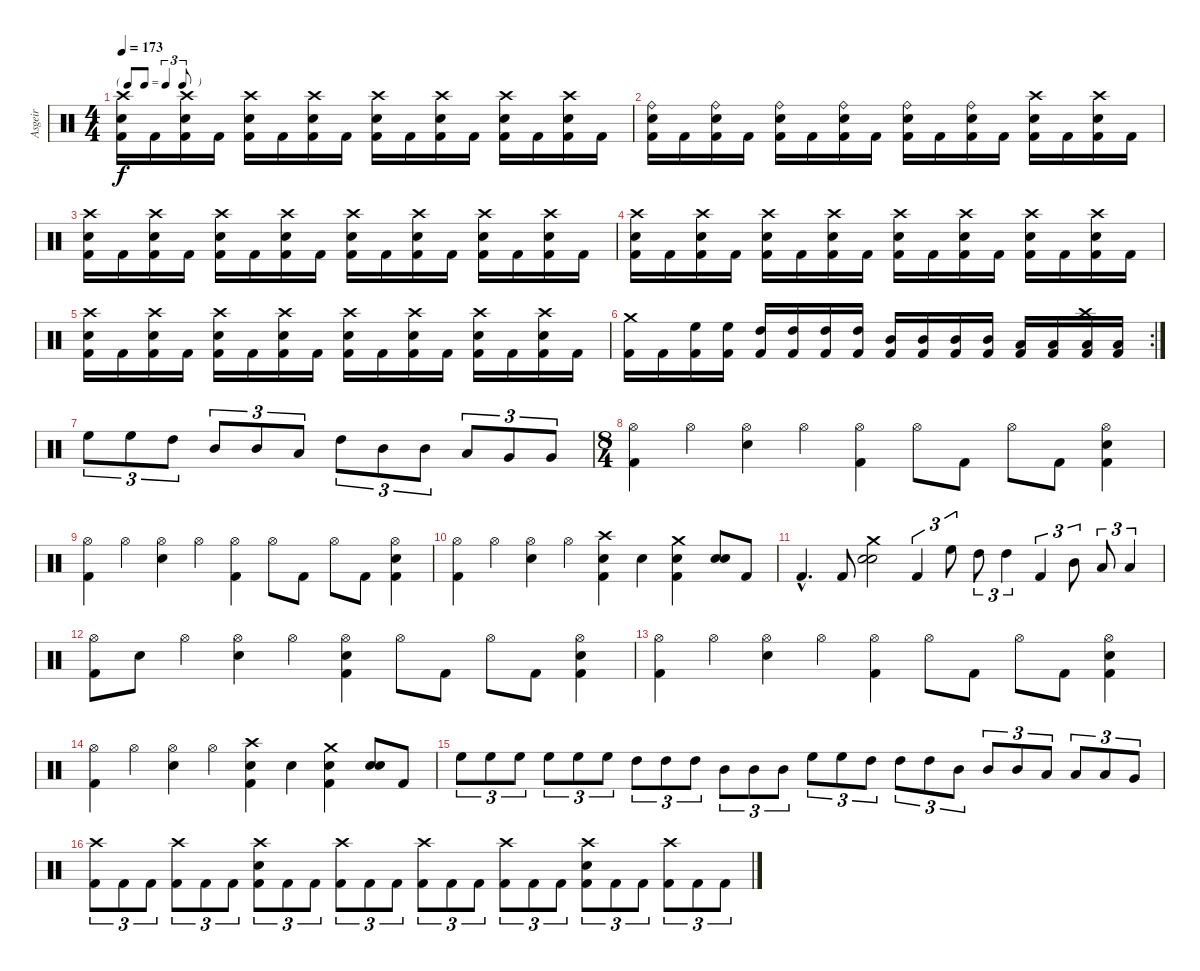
\track ("Asgeir" "Asgeir") {instrument percussion}
\staff {score}
\articulation defaults
\ts (4 4)
\tf triplet8th
\tempo 173
\clef neutral
\ks c
("Kick (hit) 2" "Snare (hit) 2" "Crash high (hit)").16{dy f} "Kick (hit) 2".16 ("Kick (hit) 2" "Snare (hit) 2" "Crash high (hit)").16 "Kick (hit) 2".16 ("Kick (hit) 2" "Snare (hit) 2" "Crash high (hit)").16 "Kick (hit) 2".16 ("Kick (hit) 2" "Snare (hit) 2" "Crash high (hit)").16 "Kick (hit) 2".16 ("Kick (hit) 2" "Snare (hit) 2" "Crash high (hit)").16 "Kick (hit) 2".16 ("Kick (hit) 2" "Snare (hit) 2" "Crash high (hit)").16 "Kick (hit) 2".16 ("Kick (hit) 2" "Snare (hit) 2" "Crash high (hit)").16 "Kick (hit) 2".16 ("Kick (hit) 2" "Snare (hit) 2" "Crash high (hit)").16 "Kick (hit) 2".16 |
("Kick (hit) 2" "Snare (hit) 2" "Ride (bell)").16 "Kick (hit) 2".16 ("Kick (hit) 2" "Snare (hit) 2" "Ride (bell)").16 "Kick (hit) 2".16 ("Kick (hit) 2" "Snare (hit) 2" "Ride (bell)").16 "Kick (hit) 2".16 ("Kick (hit) 2" "Snare (hit) 2" "Ride (bell)").16 "Kick (hit) 2".16 ("Kick (hit) 2" "Snare (hit) 2" "Ride (bell)").16 "Kick (hit) 2".16 ("Kick (hit) 2" "Snare (hit) 2" "Ride (bell)").16 "Kick (hit) 2".16 ("Kick (hit) 2" "Snare (hit) 2" "Crash high (hit)").16 "Kick (hit) 2".16 ("Kick (hit) 2" "Snare (hit) 2" "Crash high (hit)").16 "Kick (hit) 2".16 |
("Kick (hit) 2" "Snare (hit) 2" "Crash high (hit)").16 "Kick (hit) 2".16 ("Kick (hit) 2" "Snare (hit) 2" "Crash high (hit)").16 "Kick (hit) 2".16 ("Kick (hit) 2" "Snare (hit) 2" "Crash high (hit)").16 "Kick (hit) 2".16 ("Kick (hit) 2" "Snare (hit) 2" "Crash high (hit)").16 "Kick (hit) 2".16 ("Kick (hit) 2" "Snare (hit) 2" "Crash high (hit)").16 "Kick (hit) 2".16 ("Kick (hit) 2" "Snare (hit) 2" "Crash high (hit)").16 "Kick (hit) 2".16 ("Kick (hit) 2" "Snare (hit) 2" "Crash high (hit)").16 "Kick (hit) 2".16 ("Kick (hit) 2" "Snare (hit) 2" "Crash high (hit)").16 "Kick (hit) 2".16 |
("Kick (hit) 2" "Snare (hit) 2" "Crash high (hit)").16 "Kick (hit) 2".16 ("Kick (hit) 2" "Snare (hit) 2" "Crash high (hit)").16 "Kick (hit) 2".16 ("Kick (hit) 2" "Snare (hit) 2" "Crash high (hit)").16 "Kick (hit) 2".16 ("Kick (hit) 2" "Snare (hit) 2" "Crash high (hit)").16 "Kick (hit) 2".16 ("Kick (hit) 2" "Snare (hit) 2" "Crash high (hit)").16 "Kick (hit) 2".16 ("Kick (hit) 2" "Snare (hit) 2" "Crash high (hit)").16 "Kick (hit) 2".16 ("Kick (hit) 2" "Snare (hit) 2" "Crash high (hit)").16 "Kick (hit) 2".16 ("Kick (hit) 2" "Snare (hit) 2" "Crash high (hit)").16 "Kick (hit) 2".16 |
("Kick (hit) 2" "Snare (hit) 2" "Crash high (hit)").16 "Kick (hit) 2".16 ("Kick (hit) 2" "Snare (hit) 2" "Crash high (hit)").16 "Kick (hit) 2".16 ("Kick (hit) 2" "Snare (hit) 2" "Crash high (hit)").16 "Kick (hit) 2".16 ("Kick (hit) 2" "Snare (hit) 2" "Crash high (hit)").16 "Kick (hit) 2".16 ("Kick (hit) 2" "Snare (hit) 2" "Crash high (hit)").16 "Kick (hit) 2".16 ("Kick (hit) 2" "Snare (hit) 2" "Crash high (hit)").16 "Kick (hit) 2".16 ("Kick (hit) 2" "Snare (hit) 2" "Crash high (hit)").16 "Kick (hit) 2".16 ("Kick (hit) 2" "Snare (hit) 2" "Crash high (hit)").16 "Kick (hit) 2".16 |
\rc 2
("Kick (hit) 2" "Crash medium (hit)").16 "Kick (hit) 2".16 ("Kick (hit) 2" "High Floor Tom (hit)").16 ("Kick (hit) 2" "High Floor Tom (hit)").16 ("Kick (hit) 2" "High Tom (hit)").16 ("Kick (hit) 2" "High Tom (hit)").16 ("Kick (hit) 2" "High Tom (hit)").16 ("Kick (hit) 2" "High Tom (hit)").16 ("Kick (hit) 2" "Mid Tom (hit)").16 ("Kick (hit) 2" "Mid Tom (hit)").16 ("Kick (hit) 2" "Mid Tom (hit)").16 ("Kick (hit) 2" "Mid Tom (hit)").16 ("Kick (hit) 2" "Low Tom (hit)").16 ("Kick (hit) 2" "Low Tom (hit)").16 ("Kick (hit) 2" "Low Tom (hit)" "Crash high (hit)").16 ("Kick (hit) 2" "Low Tom (hit)").16 |
"High Floor Tom (hit)".8{tu (3 2)} "High Floor Tom (hit)".8{tu (3 2)} "High Tom (hit)".8{tu (3 2)} "Mid Tom (hit)".8{tu (3 2)} "Mid Tom (hit)".8{tu (3 2)} "Low Tom (hit)".8{tu (3 2)} "High Tom (hit)".8{tu (3 2)} "Mid Tom (hit)".8{tu (3 2)} "Mid Tom (hit)".8{tu (3 2)} "Low Tom (hit)".8{tu (3 2)} "Very Low Tom (hit)".8{tu (3 2)} "Very Low Tom (hit)".8{tu (3 2)} |
\ts (8 4)
("Kick (hit) 2" "Hi-Hat (open)").4 "Hi-Hat (open)".4 ("Snare (hit) 2" "Hi-Hat (open)").4 "Hi-Hat (open)".4 ("Kick (hit) 2" "Hi-Hat (open)").4 "Hi-Hat (open)".8 "Kick (hit) 2".8 "Hi-Hat (open)".8 "Kick (hit) 2".8 ("Kick (hit) 2" "Snare (hit) 2" "Hi-Hat (open)").4 |
("Kick (hit) 2" "Hi-Hat (open)").4 "Hi-Hat (open)".4 ("Snare (hit) 2" "Hi-Hat (open)").4 "Hi-Hat (open)".4 ("Kick (hit) 2" "Hi-Hat (open)").4 "Hi-Hat (open)".8 "Kick (hit) 2".8 "Hi-Hat (open)".8 "Kick (hit) 2".8 ("Kick (hit) 2" "Snare (hit) 2" "Hi-Hat (open)").4 |
("Kick (hit) 2" "Hi-Hat (open)").4 "Hi-Hat (open)".4 ("Snare (hit) 2" "Hi-Hat (open)").4 "Hi-Hat (open)".4 ("Kick (hit) 2" "Snare (hit) 2" "Crash high (hit)").4 "Snare (hit) 2".4 ("Kick (hit) 2" "Snare (hit) 2" "Crash medium (hit)").4 ("Snare (hit) 2" "Snare (hit) 2").8{bd 480} "Kick (hit) 2".8 |
"Kick (hit) 2"{hac}.4{d} "Kick (hit) 2".8 ("Snare (hit) 2" "Snare (hit) 2" "Crash medium (hit)").2 "Kick (hit) 2".4{tu (3 2)} "High Floor Tom (hit)".8{tu (3 2)} "High Tom (hit)".8{tu (3 2)} "High Tom (hit)".4{tu (3 2)} "Kick (hit) 2".4{tu (3 2)} "Mid Tom (hit)".8{tu (3 2)} "Low Tom (hit)".8{tu (3 2)} "Low Tom (hit)".4{tu (3 2)} |
("Kick (hit) 2" "Hi-Hat (open)").8 "Snare (hit) 2".8 "Hi-Hat (open)".4 ("Snare (hit) 2" "Hi-Hat (open)").4 "Hi-Hat (open)".4 ("Kick (hit) 2" "Snare (hit) 2" "Hi-Hat (open)").4 "Hi-Hat (open)".8 "Kick (hit) 2".8 "Hi-Hat (open)".8 "Kick (hit) 2".8 ("Kick (hit) 2" "Snare (hit) 2" "Hi-Hat (open)").4 |
("Kick (hit) 2" "Hi-Hat (open)").4 "Hi-Hat (open)".4 ("Snare (hit) 2" "Hi-Hat (open)").4 "Hi-Hat (open)".4 ("Kick (hit) 2" "Hi-Hat (open)").4 "Hi-Hat (open)".8 "Kick (hit) 2".8 "Hi-Hat (open)".8 "Kick (hit) 2".8 ("Kick (hit) 2" "Snare (hit) 2" "Hi-Hat (open)").4 |
("Kick (hit) 2" "Hi-Hat (open)").4 "Hi-Hat (open)".4 ("Snare (hit) 2" "Hi-Hat (open)").4 "Hi-Hat (open)".4 ("Kick (hit) 2" "Snare (hit) 2" "Crash high (hit)").4 "Snare (hit) 2".4 ("Kick (hit) 2" "Snare (hit) 2" "Crash medium (hit)").4 ("Snare (hit) 2" "Snare (hit) 2").8{bd 480} "Kick (hit) 2".8 |
"High Floor Tom (hit)".8{tu (3 2)} "High Floor Tom (hit)".8{tu (3 2)} "High Floor Tom (hit)".8{tu (3 2)} "High Floor Tom (hit)".8{tu (3 2)} "High Floor Tom (hit)".8{tu (3 2)} "High Floor Tom (hit)".8{tu (3 2)} "High Tom (hit)".8{tu (3 2)} "High Tom (hit)".8{tu (3 2)} "High Tom (hit)".8{tu (3 2)} "Mid Tom (hit)".8{tu (3 2)} "Mid Tom (hit)".8{tu (3 2)} "Mid Tom (hit)".8{tu (3 2)} "High Floor Tom (hit)".8{tu (3 2)} "High Floor Tom (hit)".8{tu (3 2)} "High Tom (hit)".8{tu (3 2)} "High Tom (hit)".8{tu (3 2)} "High Tom (hit)".8{tu (3 2)} "Mid Tom (hit)".8{tu (3 2)} "Mid Tom (hit)".8{tu (3 2)} "Mid Tom (hit)".8{tu (3 2)} "Low Tom (hit)".8{tu (3 2)} "Low Tom (hit)".8{tu (3 2)} "Low Tom (hit)".8{tu (3 2)} "Very Low Tom (hit)".8{tu (3 2)} |
("Kick (hit) 2" "Crash high (hit)").8{tu (3 2)} "Kick (hit) 2".8{tu (3 2)} "Kick (hit) 2".8{tu (3 2)} ("Kick (hit) 2" "Crash high (hit)").8{tu (3 2)} "Kick (hit) 2".8{tu (3 2)} "Kick (hit) 2".8{tu (3 2)} ("Kick (hit) 2" "Snare (hit) 2" "Crash high (hit)").8{tu (3 2)} "Kick (hit) 2".8{tu (3 2)} "Kick (hit) 2".8{tu (3 2)} ("Kick (hit) 2" "Crash high (hit)").8{tu (3 2)} "Kick (hit) 2".8{tu (3 2)} "Kick (hit) 2".8{tu (3 2)} ("Kick (hit) 2" "Crash high (hit)").8{tu (3 2)} "Kick (hit) 2".8{tu (3 2)} "Kick (hit) 2".8{tu (3 2)} ("Kick (hit) 2" "Crash high (hit)").8{tu (3 2)} "Kick (hit) 2".8{tu (3 2)} "Kick (hit) 2".8{tu (3 2)} ("Kick (hit) 2" "Snare (hit) 2" "Crash high (hit)").8{tu (3 2)} "Kick (hit) 2".8{tu (3 2)} "Kick (hit) 2".8{tu (3 2)} ("Kick (hit) 2" "Crash high (hit)").8{tu (3 2)} "Kick (hit) 2".8{tu (3 2)} "Kick (hit) 2".8{tu (3 2)}
